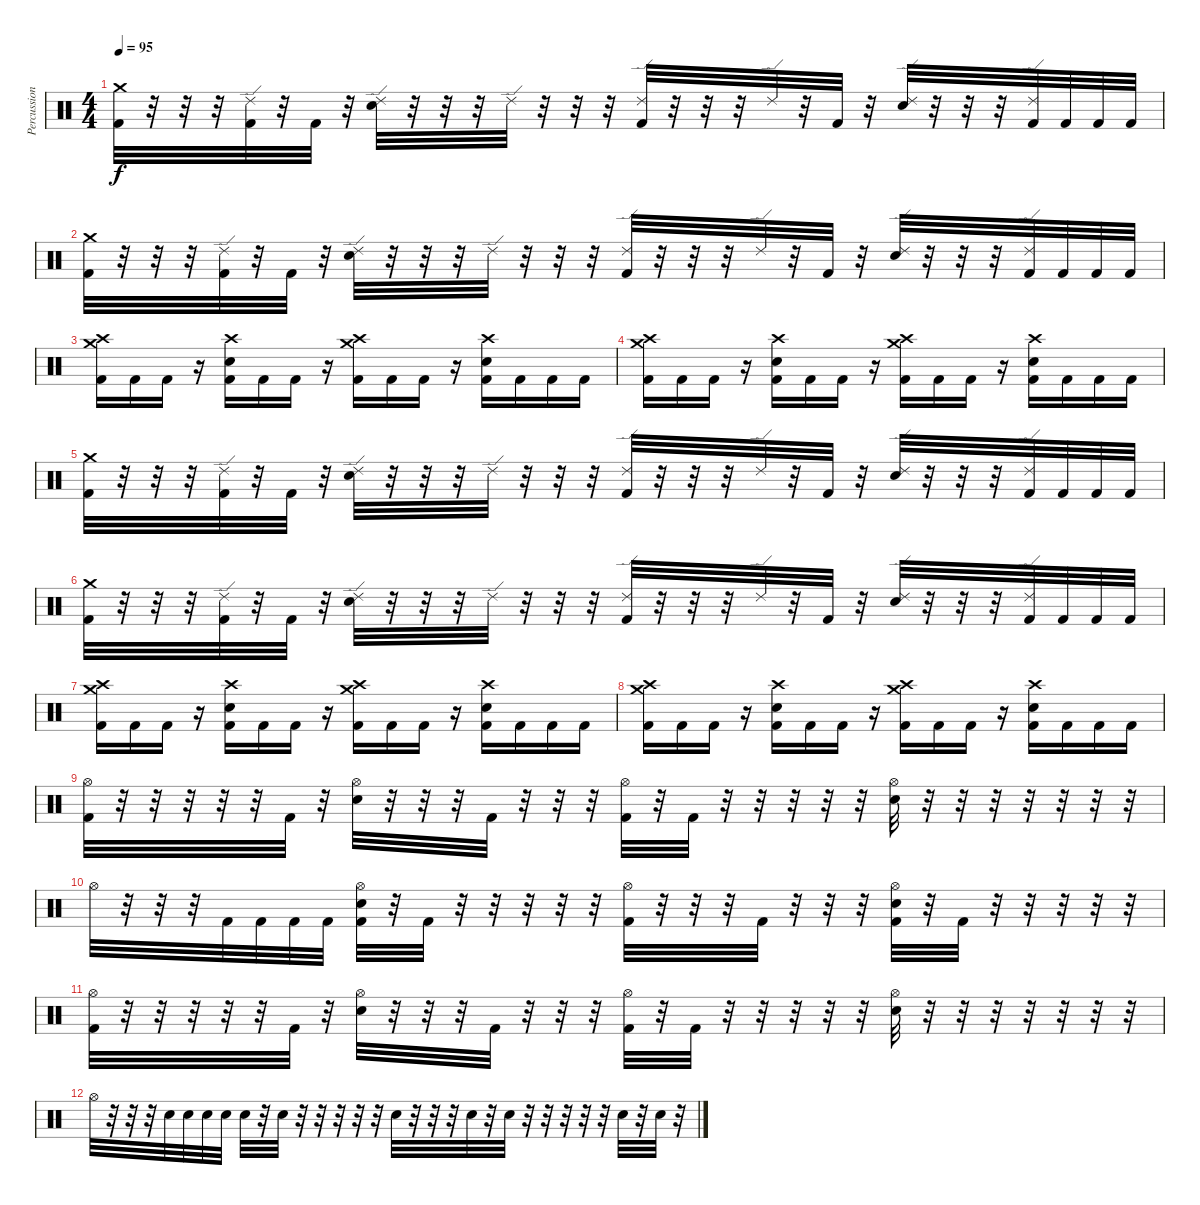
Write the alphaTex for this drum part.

\track ("Percussion" "Percussion") {instrument percussion}
\staff {score}
\articulation defaults
\ts (4 4)
\tempo 95
\clef neutral
\ks c
("Crash medium (hit)" "Kick (hit) 2").32{dy f} r.32 r.32 r.32 ("Ride (edge) 2" "Kick (hit) 2").32 r.32 "Kick (hit) 2".32 r.32 ("Ride (edge) 2" "Electric Snare (hit)").32 r.32 r.32 r.32 "Ride (edge) 2".32 r.32 r.32 r.32 ("Ride (edge) 2" "Kick (hit) 2").32 r.32 r.32 r.32 "Ride (edge) 2".32 r.32 "Kick (hit) 2".32 r.32 ("Ride (edge) 2" "Electric Snare (hit)").32 r.32 r.32 r.32 ("Ride (edge) 2" "Kick (hit) 2").32 "Kick (hit) 2".32 "Kick (hit) 2".32 "Kick (hit) 2".32 |
("Crash medium (hit)" "Kick (hit) 2").32 r.32 r.32 r.32 ("Ride (edge) 2" "Kick (hit) 2").32 r.32 "Kick (hit) 2".32 r.32 ("Ride (edge) 2" "Electric Snare (hit)").32 r.32 r.32 r.32 "Ride (edge) 2".32 r.32 r.32 r.32 ("Ride (edge) 2" "Kick (hit) 2").32 r.32 r.32 r.32 "Ride (edge) 2".32 r.32 "Kick (hit) 2".32 r.32 ("Ride (edge) 2" "Electric Snare (hit)").32 r.32 r.32 r.32 ("Ride (edge) 2" "Kick (hit) 2").32 "Kick (hit) 2".32 "Kick (hit) 2".32 "Kick (hit) 2".32 |
("Crash medium (hit)" "Crash high (hit)" "Kick (hit) 2").16 "Kick (hit) 2".16 "Kick (hit) 2".16 r.16 ("Crash high (hit)" "Electric Snare (hit)" "Kick (hit) 2").16 "Kick (hit) 2".16 "Kick (hit) 2".16 r.16 ("Crash medium (hit)" "Crash high (hit)" "Kick (hit) 2").16 "Kick (hit) 2".16 "Kick (hit) 2".16 r.16 ("Crash high (hit)" "Electric Snare (hit)" "Kick (hit) 2").16 "Kick (hit) 2".16 "Kick (hit) 2".16 "Kick (hit) 2".16 |
("Crash medium (hit)" "Crash high (hit)" "Kick (hit) 2").16 "Kick (hit) 2".16 "Kick (hit) 2".16 r.16 ("Crash high (hit)" "Electric Snare (hit)" "Kick (hit) 2").16 "Kick (hit) 2".16 "Kick (hit) 2".16 r.16 ("Crash medium (hit)" "Crash high (hit)" "Kick (hit) 2").16 "Kick (hit) 2".16 "Kick (hit) 2".16 r.16 ("Crash high (hit)" "Electric Snare (hit)" "Kick (hit) 2").16 "Kick (hit) 2".16 "Kick (hit) 2".16 "Kick (hit) 2".16 |
("Crash medium (hit)" "Kick (hit) 2").32 r.32 r.32 r.32 ("Ride (edge) 2" "Kick (hit) 2").32 r.32 "Kick (hit) 2".32 r.32 ("Ride (edge) 2" "Electric Snare (hit)").32 r.32 r.32 r.32 "Ride (edge) 2".32 r.32 r.32 r.32 ("Ride (edge) 2" "Kick (hit) 2").32 r.32 r.32 r.32 "Ride (edge) 2".32 r.32 "Kick (hit) 2".32 r.32 ("Ride (edge) 2" "Electric Snare (hit)").32 r.32 r.32 r.32 ("Ride (edge) 2" "Kick (hit) 2").32 "Kick (hit) 2".32 "Kick (hit) 2".32 "Kick (hit) 2".32 |
("Crash medium (hit)" "Kick (hit) 2").32 r.32 r.32 r.32 ("Ride (edge) 2" "Kick (hit) 2").32 r.32 "Kick (hit) 2".32 r.32 ("Ride (edge) 2" "Electric Snare (hit)").32 r.32 r.32 r.32 "Ride (edge) 2".32 r.32 r.32 r.32 ("Ride (edge) 2" "Kick (hit) 2").32 r.32 r.32 r.32 "Ride (edge) 2".32 r.32 "Kick (hit) 2".32 r.32 ("Ride (edge) 2" "Electric Snare (hit)").32 r.32 r.32 r.32 ("Ride (edge) 2" "Kick (hit) 2").32 "Kick (hit) 2".32 "Kick (hit) 2".32 "Kick (hit) 2".32 |
("Crash medium (hit)" "Crash high (hit)" "Kick (hit) 2").16 "Kick (hit) 2".16 "Kick (hit) 2".16 r.16 ("Crash high (hit)" "Electric Snare (hit)" "Kick (hit) 2").16 "Kick (hit) 2".16 "Kick (hit) 2".16 r.16 ("Crash medium (hit)" "Crash high (hit)" "Kick (hit) 2").16 "Kick (hit) 2".16 "Kick (hit) 2".16 r.16 ("Crash high (hit)" "Electric Snare (hit)" "Kick (hit) 2").16 "Kick (hit) 2".16 "Kick (hit) 2".16 "Kick (hit) 2".16 |
("Crash medium (hit)" "Crash high (hit)" "Kick (hit) 2").16 "Kick (hit) 2".16 "Kick (hit) 2".16 r.16 ("Crash high (hit)" "Electric Snare (hit)" "Kick (hit) 2").16 "Kick (hit) 2".16 "Kick (hit) 2".16 r.16 ("Crash medium (hit)" "Crash high (hit)" "Kick (hit) 2").16 "Kick (hit) 2".16 "Kick (hit) 2".16 r.16 ("Crash high (hit)" "Electric Snare (hit)" "Kick (hit) 2").16 "Kick (hit) 2".16 "Kick (hit) 2".16 "Kick (hit) 2".16 |
("Hi-Hat (open)" "Kick (hit) 2").32 r.32 r.32 r.32 r.32 r.32 "Kick (hit) 2".32 r.32 ("Hi-Hat (open)" "Electric Snare (hit)").32 r.32 r.32 r.32 "Kick (hit) 2".32 r.32 r.32 r.32 ("Hi-Hat (open)" "Kick (hit) 2").32 r.32 "Kick (hit) 2".32 r.32 r.32 r.32 r.32 r.32 ("Hi-Hat (open)" "Electric Snare (hit)").32 r.32 r.32 r.32 r.32 r.32 r.32 r.32 |
"Hi-Hat (open)".32 r.32 r.32 r.32 "Kick (hit) 2".32 "Kick (hit) 2".32 "Kick (hit) 2".32 "Kick (hit) 2".32 ("Hi-Hat (open)" "Electric Snare (hit)" "Kick (hit) 2").32 r.32 "Kick (hit) 2".32 r.32 r.32 r.32 r.32 r.32 ("Hi-Hat (open)" "Kick (hit) 2").32 r.32 r.32 r.32 "Kick (hit) 2".32 r.32 r.32 r.32 ("Hi-Hat (open)" "Electric Snare (hit)" "Kick (hit) 2").32 r.32 "Kick (hit) 2".32 r.32 r.32 r.32 r.32 r.32 |
("Hi-Hat (open)" "Kick (hit) 2").32 r.32 r.32 r.32 r.32 r.32 "Kick (hit) 2".32 r.32 ("Hi-Hat (open)" "Electric Snare (hit)").32 r.32 r.32 r.32 "Kick (hit) 2".32 r.32 r.32 r.32 ("Hi-Hat (open)" "Kick (hit) 2").32 r.32 "Kick (hit) 2".32 r.32 r.32 r.32 r.32 r.32 ("Hi-Hat (open)" "Electric Snare (hit)").32 r.32 r.32 r.32 r.32 r.32 r.32 r.32 |
"Hi-Hat (open)".32 r.32 r.32 r.32 "Electric Snare (hit)".32 "Electric Snare (hit)".32 "Electric Snare (hit)".32 "Electric Snare (hit)".32 "Electric Snare (hit)".32 r.32 "Electric Snare (hit)".32 r.32 r.32 r.32 r.32 r.32 "Electric Snare (hit)".32 r.32 r.32 r.32 "Electric Snare (hit)".32 r.32 "Electric Snare (hit)".32 r.32 r.32 r.32 r.32 r.32 "Electric Snare (hit)".32 r.32 "Electric Snare (hit)".32 r.32
